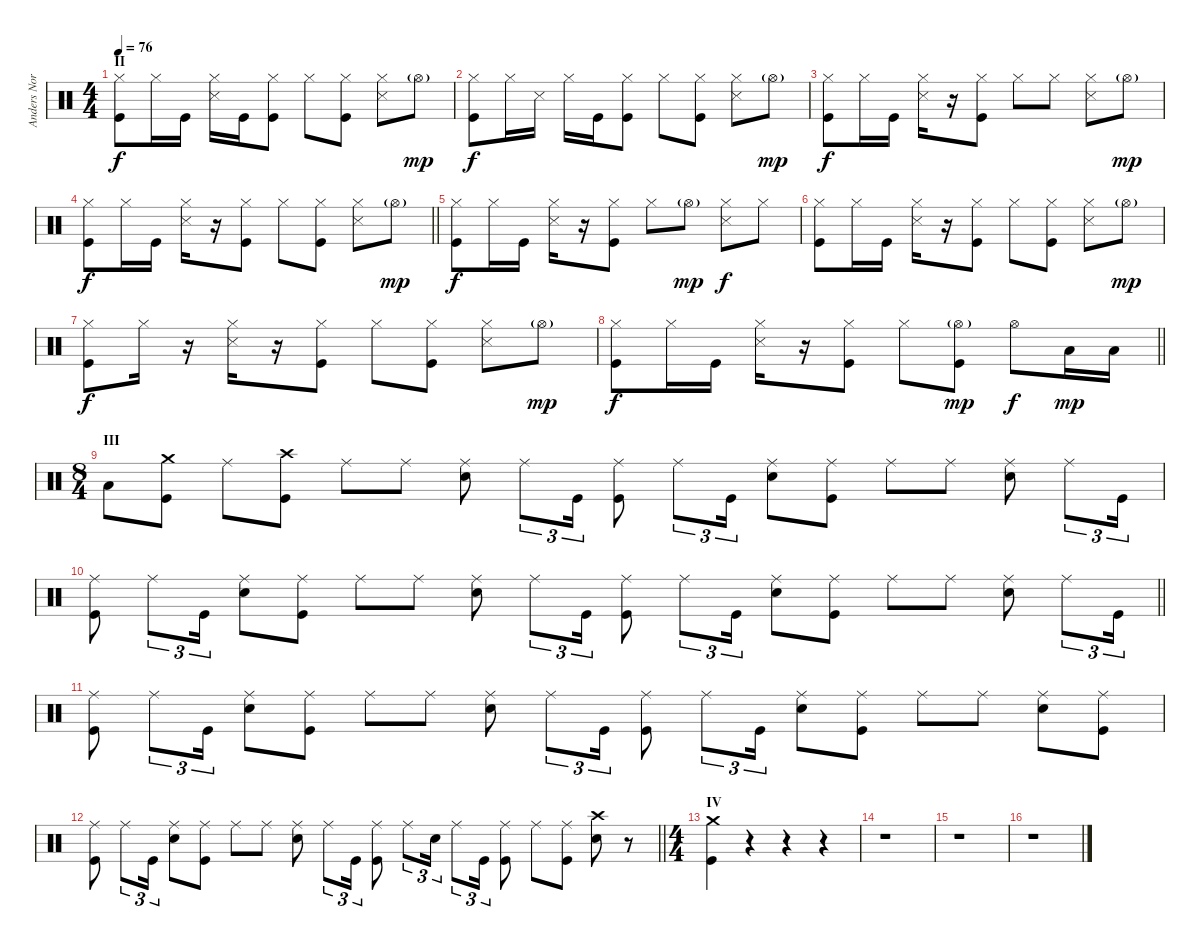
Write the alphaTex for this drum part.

\track ("Anders Nordin - Drums" "Anders Nor") {instrument percussion}
\staff {score}
\articulation defaults
\ts (4 4)
\section ("" "II")
\tempo 76
\clef neutral
\ks c
("Hi-Hat (closed)" "Kick (hit)").8{dy f} "Hi-Hat (closed)".16 "Kick (hit)".16 ("Hi-Hat (closed)" "Snare (side stick) 3").16 "Kick (hit)".16 ("Hi-Hat (closed)" "Kick (hit)").8 "Hi-Hat (closed)".8 ("Hi-Hat (closed)" "Kick (hit)").8 ("Hi-Hat (closed)" "Snare (side stick) 3").8 "Hi-Hat (open)"{g}.8{dy mp} |
("Hi-Hat (closed)" "Kick (hit)").8{dy f} "Hi-Hat (closed)".16 "Snare (side stick) 3".16 "Hi-Hat (closed)".16 "Kick (hit)".16 ("Hi-Hat (closed)" "Kick (hit)").8 "Hi-Hat (closed)".8 ("Hi-Hat (closed)" "Kick (hit)").8 ("Hi-Hat (closed)" "Snare (side stick) 3").8 "Hi-Hat (open)"{g}.8{dy mp} |
("Hi-Hat (closed)" "Kick (hit)").8{dy f} "Hi-Hat (closed)".16 "Kick (hit)".16 ("Hi-Hat (closed)" "Snare (side stick) 3").16 r.16 ("Hi-Hat (closed)" "Kick (hit)").8 "Hi-Hat (closed)".8 "Hi-Hat (closed)".8 ("Hi-Hat (closed)" "Snare (side stick) 3").8 "Hi-Hat (open)"{g}.8{dy mp} |
\barLineRight lightlight
("Hi-Hat (closed)" "Kick (hit)").8{dy f} "Hi-Hat (closed)".16 "Kick (hit)".16 ("Hi-Hat (closed)" "Snare (side stick) 3").16 r.16 ("Hi-Hat (closed)" "Kick (hit)").8 "Hi-Hat (closed)".8 ("Hi-Hat (closed)" "Kick (hit)").8 ("Hi-Hat (closed)" "Snare (side stick) 3").8 "Hi-Hat (open)"{g}.8{dy mp} |
("Hi-Hat (closed)" "Kick (hit)").8{dy f} "Hi-Hat (closed)".16 "Kick (hit)".16 ("Hi-Hat (closed)" "Snare (side stick) 3").16 r.16 ("Hi-Hat (closed)" "Kick (hit)").8 "Hi-Hat (closed)".8 "Hi-Hat (open)"{g}.8{dy mp} ("Hi-Hat (closed)" "Snare (side stick) 3").8{dy f} "Hi-Hat (closed)".8 |
("Hi-Hat (closed)" "Kick (hit)").8 "Hi-Hat (closed)".16 "Kick (hit)".16 ("Hi-Hat (closed)" "Snare (side stick) 3").16 r.16 ("Hi-Hat (closed)" "Kick (hit)").8 "Hi-Hat (closed)".8 ("Hi-Hat (closed)" "Kick (hit)").8 ("Hi-Hat (closed)" "Snare (side stick) 3").8 "Hi-Hat (open)"{g}.8{dy mp} |
("Hi-Hat (closed)" "Kick (hit)").8{dy f} "Hi-Hat (closed)".16 r.16 ("Hi-Hat (closed)" "Snare (side stick) 3").16 r.16 ("Hi-Hat (closed)" "Kick (hit)").8 "Hi-Hat (closed)".8 ("Hi-Hat (closed)" "Kick (hit)").8 ("Hi-Hat (closed)" "Snare (side stick) 3").8 "Hi-Hat (open)"{g}.8{dy mp} |
\barLineRight lightlight
("Hi-Hat (closed)" "Kick (hit)").8{dy f} "Hi-Hat (closed)".16 "Kick (hit)".16 ("Hi-Hat (closed)" "Snare (side stick) 3").16 r.16 ("Hi-Hat (closed)" "Kick (hit)").8 "Hi-Hat (closed)".8 ("Hi-Hat (open)"{g} "Kick (hit)").8{dy mp} "Hi-Hat (open)".8{dy f} "Low Tom (hit)".16{dy mp} "Low Tom (hit)".16 |
\ts (8 4)
\section ("" "III")
"Low Floor Tom (hit)".8 ("Crash medium (hit)" "Kick (hit)").8 "Ride (middle)".8 ("Crash high (hit)" "Kick (hit)").8 "Ride (middle)".8 "Ride (middle)".8 ("Ride (middle)" "Snare (hit) 2").8 "Ride (middle)".8{tu (3 2)} "Kick (hit)".16{tu (3 2)} ("Ride (middle)" "Kick (hit)").8 "Ride (middle)".8{tu (3 2)} "Kick (hit)".16{tu (3 2)} ("Ride (middle)" "Snare (hit) 2").8 ("Ride (middle)" "Kick (hit)").8 "Ride (middle)".8 "Ride (middle)".8 ("Ride (middle)" "Snare (hit) 2").8 "Ride (middle)".8{tu (3 2)} "Kick (hit)".16{tu (3 2)} |
\barLineRight lightlight
("Ride (middle)" "Kick (hit)").8 "Ride (middle)".8{tu (3 2)} "Kick (hit)".16{tu (3 2)} ("Ride (middle)" "Snare (hit) 2").8 ("Ride (middle)" "Kick (hit)").8 "Ride (middle)".8 "Ride (middle)".8 ("Ride (middle)" "Snare (hit) 2").8 "Ride (middle)".8{tu (3 2)} "Kick (hit)".16{tu (3 2)} ("Ride (middle)" "Kick (hit)").8 "Ride (middle)".8{tu (3 2)} "Kick (hit)".16{tu (3 2)} ("Ride (middle)" "Snare (hit) 2").8 ("Ride (middle)" "Kick (hit)").8 "Ride (middle)".8 "Ride (middle)".8 ("Ride (middle)" "Snare (hit) 2").8 "Ride (middle)".8{tu (3 2)} "Kick (hit)".16{tu (3 2)} |
("Ride (middle)" "Kick (hit)").8 "Ride (middle)".8{tu (3 2)} "Kick (hit)".16{tu (3 2)} ("Ride (middle)" "Snare (hit) 2").8 ("Ride (middle)" "Kick (hit)").8 "Ride (middle)".8 "Ride (middle)".8 ("Ride (middle)" "Snare (hit) 2").8 "Ride (middle)".8{tu (3 2)} "Kick (hit)".16{tu (3 2)} ("Ride (middle)" "Kick (hit)").8 "Ride (middle)".8{tu (3 2)} "Kick (hit)".16{tu (3 2)} ("Ride (middle)" "Snare (hit) 2").8 ("Ride (middle)" "Kick (hit)").8 "Ride (middle)".8 "Ride (middle)".8 ("Ride (middle)" "Snare (hit) 2").8 ("Ride (middle)" "Kick (hit)").8 |
\barLineRight lightlight
("Ride (middle)" "Kick (hit)").8 "Ride (middle)".8{tu (3 2)} "Kick (hit)".16{tu (3 2)} ("Ride (middle)" "Snare (hit) 2").8 ("Ride (middle)" "Kick (hit)").8 "Ride (middle)".8 "Ride (middle)".8 ("Ride (middle)" "Snare (hit) 2").8 "Ride (middle)".8{tu (3 2)} "Kick (hit)".16{tu (3 2)} ("Ride (middle)" "Kick (hit)").8 "Ride (middle)".8{tu (3 2)} "Snare (hit) 2".16{tu (3 2)} "Ride (middle)".8{tu (3 2)} "Kick (hit)".16{tu (3 2)} ("Ride (middle)" "Kick (hit)").8 "Ride (middle)".8 ("Ride (middle)" "Kick (hit)").8 ("Crash high (hit)" "Snare (hit) 2").8 r.8 |
\ts (4 4)
\section ("" "IV")
("Kick (hit)" "Crash medium (hit)").4 r.4 r.4 r.4 |
r.1 |
r.1 |
r.1
